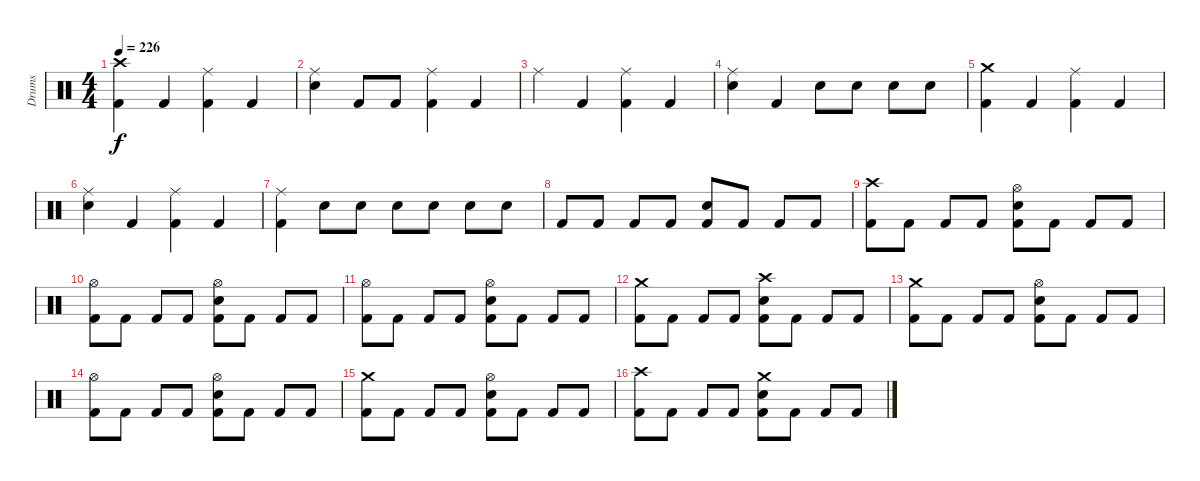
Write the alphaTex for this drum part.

\track ("Drums" "Drums") {instrument percussion}
\staff {score}
\articulation defaults
\ts (4 4)
\tempo 226
\clef neutral
\ks c
("Crash high (hit)" "Kick (hit) 2").4{dy f} "Kick (hit) 2".4 ("Ride (middle)" "Kick (hit) 2").4 "Kick (hit) 2".4 |
("Ride (middle)" "Snare (hit) 2").4 "Kick (hit) 2".8 "Kick (hit) 2".8 ("Ride (middle)" "Kick (hit) 2").4 "Kick (hit) 2".4 |
"Ride (middle)".4 "Kick (hit) 2".4 ("Ride (middle)" "Kick (hit) 2").4 "Kick (hit) 2".4 |
("Ride (middle)" "Snare (hit) 2").4 "Kick (hit) 2".4 "Snare (hit) 2".8 "Snare (hit) 2".8 "Snare (hit) 2".8 "Snare (hit) 2".8 |
("Crash medium (hit)" "Kick (hit) 2").4 "Kick (hit) 2".4 ("Ride (middle)" "Kick (hit) 2").4 "Kick (hit) 2".4 |
("Ride (middle)" "Snare (hit) 2").4 "Kick (hit) 2".4 ("Ride (middle)" "Kick (hit) 2").4 "Kick (hit) 2".4 |
("Ride (middle)" "Kick (hit) 2").4 "Snare (hit) 2".8 "Snare (hit) 2".8 "Snare (hit) 2".8 "Snare (hit) 2".8 "Snare (hit) 2".8 "Snare (hit) 2".8 |
"Kick (hit) 2".8 "Kick (hit) 2".8 "Kick (hit) 2".8 "Kick (hit) 2".8 ("Snare (hit) 2" "Kick (hit) 2").8 "Kick (hit) 2".8 "Kick (hit) 2".8 "Kick (hit) 2".8 |
("Crash high (hit)" "Kick (hit) 2").8 "Kick (hit) 2".8 "Kick (hit) 2".8 "Kick (hit) 2".8 ("Hi-Hat (open)" "Snare (hit) 2" "Kick (hit) 2").8 "Kick (hit) 2".8 "Kick (hit) 2".8 "Kick (hit) 2".8 |
("Hi-Hat (open)" "Kick (hit) 2").8 "Kick (hit) 2".8 "Kick (hit) 2".8 "Kick (hit) 2".8 ("Hi-Hat (open)" "Snare (hit) 2" "Kick (hit) 2").8 "Kick (hit) 2".8 "Kick (hit) 2".8 "Kick (hit) 2".8 |
("Hi-Hat (open)" "Kick (hit) 2").8 "Kick (hit) 2".8 "Kick (hit) 2".8 "Kick (hit) 2".8 ("Hi-Hat (open)" "Snare (hit) 2" "Kick (hit) 2").8 "Kick (hit) 2".8 "Kick (hit) 2".8 "Kick (hit) 2".8 |
("Crash medium (hit)" "Kick (hit) 2").8 "Kick (hit) 2".8 "Kick (hit) 2".8 "Kick (hit) 2".8 ("Crash high (hit)" "Snare (hit) 2" "Kick (hit) 2").8 "Kick (hit) 2".8 "Kick (hit) 2".8 "Kick (hit) 2".8 |
("Crash medium (hit)" "Kick (hit) 2").8 "Kick (hit) 2".8 "Kick (hit) 2".8 "Kick (hit) 2".8 ("Hi-Hat (open)" "Snare (hit) 2" "Kick (hit) 2").8 "Kick (hit) 2".8 "Kick (hit) 2".8 "Kick (hit) 2".8 |
("Hi-Hat (open)" "Kick (hit) 2").8 "Kick (hit) 2".8 "Kick (hit) 2".8 "Kick (hit) 2".8 ("Hi-Hat (open)" "Snare (hit) 2" "Kick (hit) 2").8 "Kick (hit) 2".8 "Kick (hit) 2".8 "Kick (hit) 2".8 |
("Crash medium (hit)" "Kick (hit) 2").8 "Kick (hit) 2".8 "Kick (hit) 2".8 "Kick (hit) 2".8 ("Hi-Hat (open)" "Snare (hit) 2" "Kick (hit) 2").8 "Kick (hit) 2".8 "Kick (hit) 2".8 "Kick (hit) 2".8 |
("Crash high (hit)" "Kick (hit) 2").8 "Kick (hit) 2".8 "Kick (hit) 2".8 "Kick (hit) 2".8 ("Crash medium (hit)" "Snare (hit) 2" "Kick (hit) 2").8 "Kick (hit) 2".8 "Kick (hit) 2".8 "Kick (hit) 2".8
